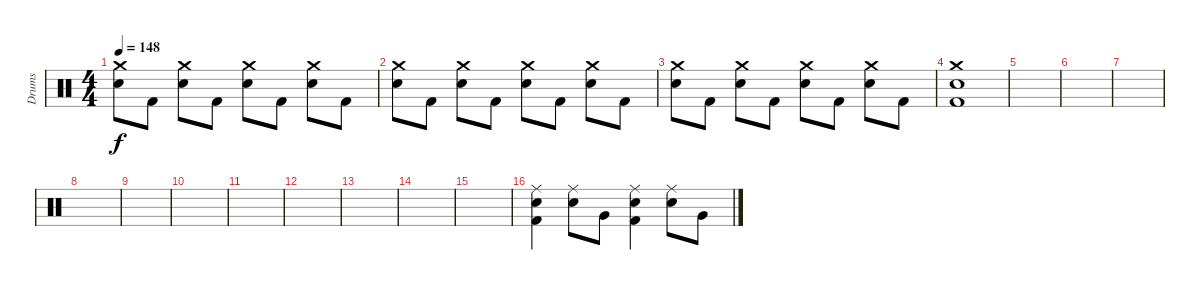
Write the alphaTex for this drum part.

\track ("Drums" "Drums") {instrument percussion}
\staff {score}
\articulation defaults
\ts (4 4)
\tempo 148
\clef neutral
\ks c
("Crash medium (hit)" "Snare (hit) 2").8{dy f} "Kick (hit) 2".8 ("Crash medium (hit)" "Snare (hit) 2").8 "Kick (hit) 2".8 ("Crash medium (hit)" "Snare (hit) 2").8 "Kick (hit) 2".8 ("Crash medium (hit)" "Snare (hit) 2").8 "Kick (hit) 2".8 |
("Crash medium (hit)" "Snare (hit) 2").8 "Kick (hit) 2".8 ("Crash medium (hit)" "Snare (hit) 2").8 "Kick (hit) 2".8 ("Crash medium (hit)" "Snare (hit) 2").8 "Kick (hit) 2".8 ("Crash medium (hit)" "Snare (hit) 2").8 "Kick (hit) 2".8 |
("Crash medium (hit)" "Snare (hit) 2").8 "Kick (hit) 2".8 ("Crash medium (hit)" "Snare (hit) 2").8 "Kick (hit) 2".8 ("Crash medium (hit)" "Snare (hit) 2").8 "Kick (hit) 2".8 ("Crash medium (hit)" "Snare (hit) 2").8 "Kick (hit) 2".8 |
("Crash medium (hit)" "Snare (hit) 2" "Kick (hit) 2").1 |
|
|
|
|
|
|
|
|
|
|
|
("Ride (middle)" "Snare (hit) 2" "Kick (hit) 2").4 ("Ride (middle)" "Snare (hit) 2").8 "Very Low Tom (hit)".8 ("Ride (middle)" "Snare (hit) 2" "Kick (hit) 2").4 ("Ride (middle)" "Snare (hit) 2").8 "Very Low Tom (hit)".8
